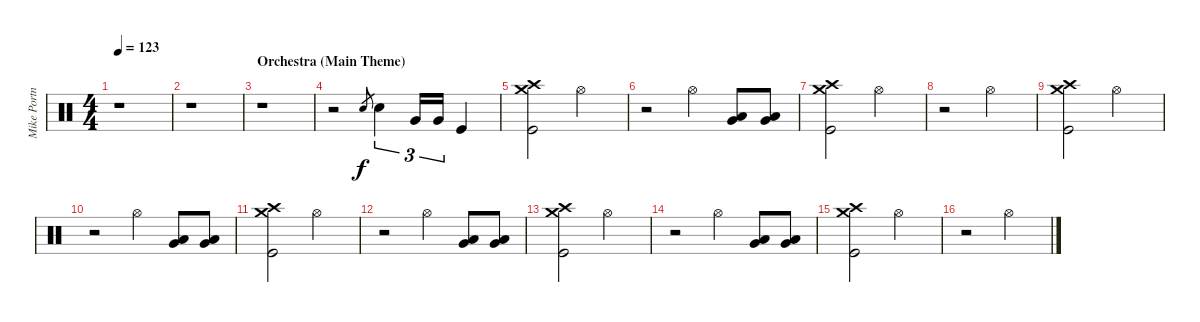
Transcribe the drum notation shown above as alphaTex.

\track ("Mike Portnoy" "Mike Portn") {instrument percussion}
\staff {score}
\articulation defaults
\ts (4 4)
\tempo 123
\clef neutral
\ks c
r.1{dy f} |
r.1 |
\section ("" "Orchestra (Main Theme)")
r.1 |
r.2 "Electric Snare (hit)".8{gr} "Electric Snare (hit)".4{tu (3 2)} "Very Low Tom (hit)".16{tu (3 2)} "Very Low Tom (hit)".16{tu (3 2)} "Kick (hit)".4 |
("Crash high (hit)" "Crash medium (hit)" "Kick (hit)").2 "Hi-Hat (open)".2 |
r.2 "Hi-Hat (open)".4 ("Low Tom (hit)" "Very Low Tom (hit)").8 ("Low Tom (hit)" "Very Low Tom (hit)").8 |
("Crash high (hit)" "Crash medium (hit)" "Kick (hit)").2 "Hi-Hat (open)".2 |
r.2 "Hi-Hat (open)".2 |
("Crash high (hit)" "Crash medium (hit)" "Kick (hit)").2 "Hi-Hat (open)".2 |
r.2 "Hi-Hat (open)".4 ("Low Tom (hit)" "Very Low Tom (hit)").8 ("Low Tom (hit)" "Very Low Tom (hit)").8 |
("Crash high (hit)" "Crash medium (hit)" "Kick (hit)").2 "Hi-Hat (open)".2 |
r.2 "Hi-Hat (open)".4 ("Low Tom (hit)" "Very Low Tom (hit)").8 ("Low Tom (hit)" "Very Low Tom (hit)").8 |
("Crash high (hit)" "Crash medium (hit)" "Kick (hit)").2 "Hi-Hat (open)".2 |
r.2 "Hi-Hat (open)".4 ("Low Tom (hit)" "Very Low Tom (hit)").8 ("Low Tom (hit)" "Very Low Tom (hit)").8 |
("Crash high (hit)" "Crash medium (hit)" "Kick (hit)").2 "Hi-Hat (open)".2 |
r.2 "Hi-Hat (open)".2
